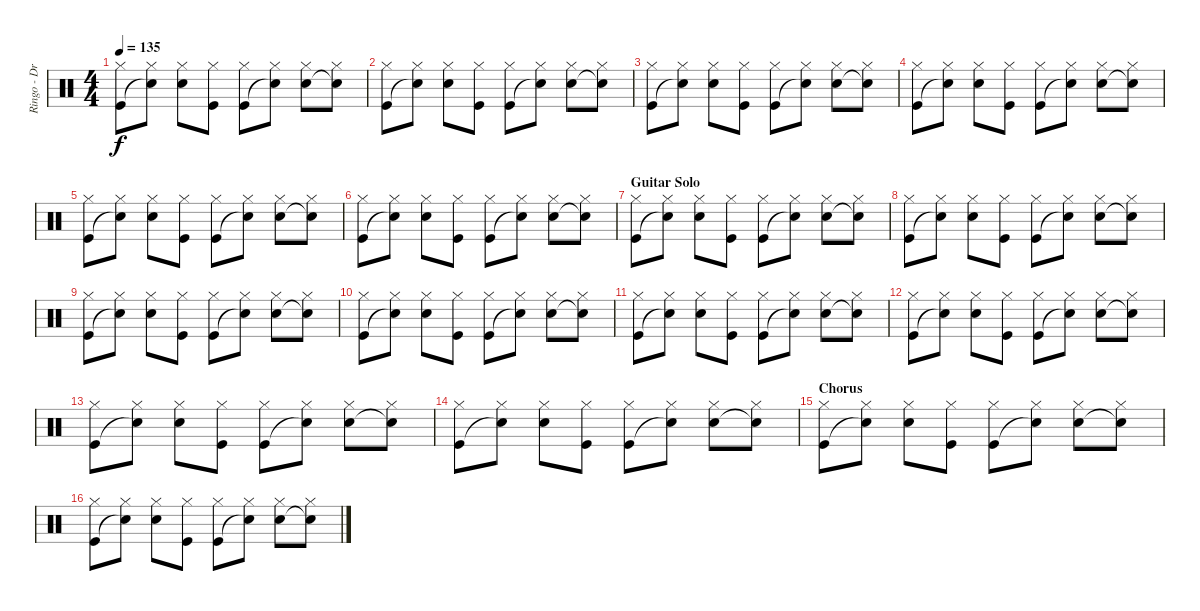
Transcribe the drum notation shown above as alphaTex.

\track ("Ringo - Drums" "Ringo - Dr") {instrument percussion}
\staff {score}
\articulation defaults
\ts (4 4)
\tempo 135
\clef neutral
\ks c
("Kick (hit)" "Hi-Hat (closed)").8{dy f} ("Snare (hit)"{t} "Hi-Hat (closed)").8 ("Snare (hit) 2" "Hi-Hat (closed)").8 ("Kick (hit)" "Hi-Hat (closed)").8 ("Kick (hit)" "Hi-Hat (closed)").8 ("Snare (hit)"{t} "Hi-Hat (closed)").8 ("Snare (hit) 2" "Hi-Hat (closed)").8 ("Snare (hit)"{t} "Hi-Hat (closed)").8 |
("Kick (hit)" "Hi-Hat (closed)").8 ("Snare (hit)"{t} "Hi-Hat (closed)").8 ("Snare (hit) 2" "Hi-Hat (closed)").8 ("Kick (hit)" "Hi-Hat (closed)").8 ("Kick (hit)" "Hi-Hat (closed)").8 ("Snare (hit)"{t} "Hi-Hat (closed)").8 ("Snare (hit) 2" "Hi-Hat (closed)").8 ("Snare (hit)"{t} "Hi-Hat (closed)").8 |
("Kick (hit)" "Hi-Hat (closed)").8 ("Snare (hit)"{t} "Hi-Hat (closed)").8 ("Snare (hit) 2" "Hi-Hat (closed)").8 ("Kick (hit)" "Hi-Hat (closed)").8 ("Kick (hit)" "Hi-Hat (closed)").8 ("Snare (hit)"{t} "Hi-Hat (closed)").8 ("Snare (hit) 2" "Hi-Hat (closed)").8 ("Snare (hit)"{t} "Hi-Hat (closed)").8 |
("Kick (hit)" "Hi-Hat (closed)").8 ("Snare (hit)"{t} "Hi-Hat (closed)").8 ("Snare (hit) 2" "Hi-Hat (closed)").8 ("Kick (hit)" "Hi-Hat (closed)").8 ("Kick (hit)" "Hi-Hat (closed)").8 ("Snare (hit)"{t} "Hi-Hat (closed)").8 ("Snare (hit) 2" "Hi-Hat (closed)").8 ("Snare (hit)"{t} "Hi-Hat (closed)").8 |
("Kick (hit)" "Hi-Hat (closed)").8 ("Snare (hit)"{t} "Hi-Hat (closed)").8 ("Snare (hit) 2" "Hi-Hat (closed)").8 ("Kick (hit)" "Hi-Hat (closed)").8 ("Kick (hit)" "Hi-Hat (closed)").8 ("Snare (hit)"{t} "Hi-Hat (closed)").8 ("Snare (hit) 2" "Hi-Hat (closed)").8 ("Snare (hit)"{t} "Hi-Hat (closed)").8 |
("Kick (hit)" "Hi-Hat (closed)").8 ("Snare (hit)"{t} "Hi-Hat (closed)").8 ("Snare (hit) 2" "Hi-Hat (closed)").8 ("Kick (hit)" "Hi-Hat (closed)").8 ("Kick (hit)" "Hi-Hat (closed)").8 ("Snare (hit)"{t} "Hi-Hat (closed)").8 ("Snare (hit) 2" "Hi-Hat (closed)").8 ("Snare (hit)"{t} "Hi-Hat (closed)").8 |
\section ("" "Guitar Solo")
("Kick (hit)" "Hi-Hat (closed)").8 ("Snare (hit)"{t} "Hi-Hat (closed)").8 ("Snare (hit) 2" "Hi-Hat (closed)").8 ("Kick (hit)" "Hi-Hat (closed)").8 ("Kick (hit)" "Hi-Hat (closed)").8 ("Snare (hit)"{t} "Hi-Hat (closed)").8 ("Snare (hit) 2" "Hi-Hat (closed)").8 ("Snare (hit)"{t} "Hi-Hat (closed)").8 |
("Kick (hit)" "Hi-Hat (closed)").8 ("Snare (hit)"{t} "Hi-Hat (closed)").8 ("Snare (hit) 2" "Hi-Hat (closed)").8 ("Kick (hit)" "Hi-Hat (closed)").8 ("Kick (hit)" "Hi-Hat (closed)").8 ("Snare (hit)"{t} "Hi-Hat (closed)").8 ("Snare (hit) 2" "Hi-Hat (closed)").8 ("Snare (hit)"{t} "Hi-Hat (closed)").8 |
("Kick (hit)" "Hi-Hat (closed)").8 ("Snare (hit)"{t} "Hi-Hat (closed)").8 ("Snare (hit) 2" "Hi-Hat (closed)").8 ("Kick (hit)" "Hi-Hat (closed)").8 ("Kick (hit)" "Hi-Hat (closed)").8 ("Snare (hit)"{t} "Hi-Hat (closed)").8 ("Snare (hit) 2" "Hi-Hat (closed)").8 ("Snare (hit)"{t} "Hi-Hat (closed)").8 |
("Kick (hit)" "Hi-Hat (closed)").8 ("Snare (hit)"{t} "Hi-Hat (closed)").8 ("Snare (hit) 2" "Hi-Hat (closed)").8 ("Kick (hit)" "Hi-Hat (closed)").8 ("Kick (hit)" "Hi-Hat (closed)").8 ("Snare (hit)"{t} "Hi-Hat (closed)").8 ("Snare (hit) 2" "Hi-Hat (closed)").8 ("Snare (hit)"{t} "Hi-Hat (closed)").8 |
("Kick (hit)" "Hi-Hat (closed)").8 ("Snare (hit)"{t} "Hi-Hat (closed)").8 ("Snare (hit) 2" "Hi-Hat (closed)").8 ("Kick (hit)" "Hi-Hat (closed)").8 ("Kick (hit)" "Hi-Hat (closed)").8 ("Snare (hit)"{t} "Hi-Hat (closed)").8 ("Snare (hit) 2" "Hi-Hat (closed)").8 ("Snare (hit)"{t} "Hi-Hat (closed)").8 |
("Kick (hit)" "Hi-Hat (closed)").8 ("Snare (hit)"{t} "Hi-Hat (closed)").8 ("Snare (hit) 2" "Hi-Hat (closed)").8 ("Kick (hit)" "Hi-Hat (closed)").8 ("Kick (hit)" "Hi-Hat (closed)").8 ("Snare (hit)"{t} "Hi-Hat (closed)").8 ("Snare (hit) 2" "Hi-Hat (closed)").8 ("Snare (hit)"{t} "Hi-Hat (closed)").8 |
("Kick (hit)" "Hi-Hat (closed)").8 ("Snare (hit)"{t} "Hi-Hat (closed)").8 ("Snare (hit) 2" "Hi-Hat (closed)").8 ("Kick (hit)" "Hi-Hat (closed)").8 ("Kick (hit)" "Hi-Hat (closed)").8 ("Snare (hit)"{t} "Hi-Hat (closed)").8 ("Snare (hit) 2" "Hi-Hat (closed)").8 ("Snare (hit)"{t} "Hi-Hat (closed)").8 |
("Kick (hit)" "Hi-Hat (closed)").8 ("Snare (hit)"{t} "Hi-Hat (closed)").8 ("Snare (hit) 2" "Hi-Hat (closed)").8 ("Kick (hit)" "Hi-Hat (closed)").8 ("Kick (hit)" "Hi-Hat (closed)").8 ("Snare (hit)"{t} "Hi-Hat (closed)").8 ("Snare (hit) 2" "Hi-Hat (closed)").8 ("Snare (hit)"{t} "Hi-Hat (closed)").8 |
\section ("" "Chorus")
("Kick (hit)" "Hi-Hat (closed)").8 ("Snare (hit)"{t} "Hi-Hat (closed)").8 ("Snare (hit) 2" "Hi-Hat (closed)").8 ("Kick (hit)" "Hi-Hat (closed)").8 ("Kick (hit)" "Hi-Hat (closed)").8 ("Snare (hit)"{t} "Hi-Hat (closed)").8 ("Snare (hit) 2" "Hi-Hat (closed)").8 ("Snare (hit)"{t} "Hi-Hat (closed)").8 |
("Kick (hit)" "Hi-Hat (closed)").8 ("Snare (hit)"{t} "Hi-Hat (closed)").8 ("Snare (hit) 2" "Hi-Hat (closed)").8 ("Kick (hit)" "Hi-Hat (closed)").8 ("Kick (hit)" "Hi-Hat (closed)").8 ("Snare (hit)"{t} "Hi-Hat (closed)").8 ("Snare (hit) 2" "Hi-Hat (closed)").8 ("Snare (hit)"{t} "Hi-Hat (closed)").8
